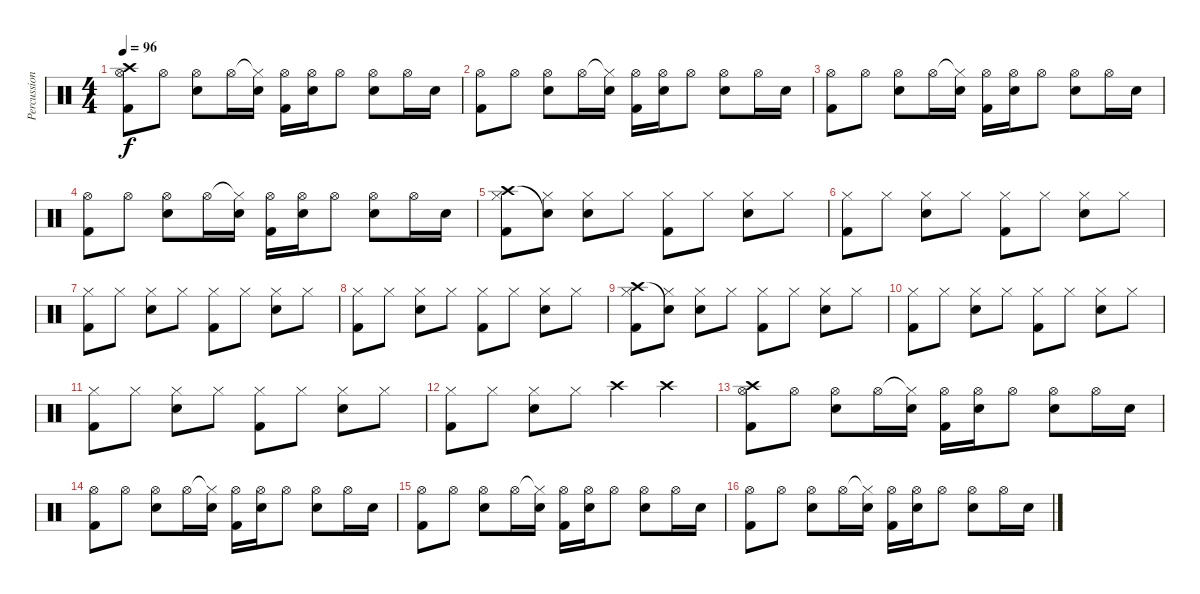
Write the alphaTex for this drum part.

\track ("Percussion" "Percussion") {instrument percussion}
\staff {score}
\articulation defaults
\ts (4 4)
\tempo 96
\clef neutral
\ks c
("Crash high (hit)" "Hi-Hat (open)" "Kick (hit) 2").8{dy f} "Hi-Hat (open)".8 ("Hi-Hat (open)" "Snare (hit) 2").8 "Hi-Hat (open)".16 ("Hi-Hat (closed)"{t} "Snare (hit) 2").16 ("Hi-Hat (open)" "Kick (hit) 2").16 ("Hi-Hat (open)" "Snare (hit) 2").16 "Hi-Hat (open)".8 ("Hi-Hat (open)" "Snare (hit) 2").8 "Hi-Hat (open)".16 "Snare (hit) 2".16 |
("Hi-Hat (open)" "Kick (hit) 2").8 "Hi-Hat (open)".8 ("Hi-Hat (open)" "Snare (hit) 2").8 "Hi-Hat (open)".16 ("Hi-Hat (closed)"{t} "Snare (hit) 2").16 ("Hi-Hat (open)" "Kick (hit) 2").16 ("Hi-Hat (open)" "Snare (hit) 2").16 "Hi-Hat (open)".8 ("Hi-Hat (open)" "Snare (hit) 2").8 "Hi-Hat (open)".16 "Snare (hit) 2".16 |
("Hi-Hat (open)" "Kick (hit) 2").8 "Hi-Hat (open)".8 ("Hi-Hat (open)" "Snare (hit) 2").8 "Hi-Hat (open)".16 ("Hi-Hat (closed)"{t} "Snare (hit) 2").16 ("Hi-Hat (open)" "Kick (hit) 2").16 ("Hi-Hat (open)" "Snare (hit) 2").16 "Hi-Hat (open)".8 ("Hi-Hat (open)" "Snare (hit) 2").8 "Hi-Hat (open)".16 "Snare (hit) 2".16 |
("Hi-Hat (open)" "Kick (hit) 2").8 "Hi-Hat (open)".8 ("Hi-Hat (open)" "Snare (hit) 2").8 "Hi-Hat (open)".16 ("Hi-Hat (closed)"{t} "Snare (hit) 2").16 ("Hi-Hat (open)" "Kick (hit) 2").16 ("Hi-Hat (open)" "Snare (hit) 2").16 "Hi-Hat (open)".8 ("Hi-Hat (open)" "Snare (hit) 2").8 "Hi-Hat (open)".16 "Snare (hit) 2".16 |
("Crash high (hit)" "Hi-Hat (closed)" "Kick (hit) 2").8 ("Snare (hit)"{t} "Hi-Hat (closed)").8 ("Hi-Hat (closed)" "Snare (hit) 2").8 "Hi-Hat (closed)".8 ("Hi-Hat (closed)" "Kick (hit) 2").8 "Hi-Hat (closed)".8 ("Hi-Hat (closed)" "Snare (hit) 2").8 "Hi-Hat (closed)".8 |
("Hi-Hat (closed)" "Kick (hit) 2").8 "Hi-Hat (closed)".8 ("Hi-Hat (closed)" "Snare (hit) 2").8 "Hi-Hat (closed)".8 ("Hi-Hat (closed)" "Kick (hit) 2").8 "Hi-Hat (closed)".8 ("Hi-Hat (closed)" "Snare (hit) 2").8 "Hi-Hat (closed)".8 |
("Hi-Hat (closed)" "Kick (hit) 2").8 "Hi-Hat (closed)".8 ("Hi-Hat (closed)" "Snare (hit) 2").8 "Hi-Hat (closed)".8 ("Hi-Hat (closed)" "Kick (hit) 2").8 "Hi-Hat (closed)".8 ("Hi-Hat (closed)" "Snare (hit) 2").8 "Hi-Hat (closed)".8 |
("Hi-Hat (closed)" "Kick (hit) 2").8 "Hi-Hat (closed)".8 ("Hi-Hat (closed)" "Snare (hit) 2").8 "Hi-Hat (closed)".8 ("Hi-Hat (closed)" "Kick (hit) 2").8 "Hi-Hat (closed)".8 ("Hi-Hat (closed)" "Snare (hit) 2").8 "Hi-Hat (closed)".8 |
("Crash high (hit)" "Hi-Hat (closed)" "Kick (hit) 2").8 ("Snare (hit)"{t} "Hi-Hat (closed)").8 ("Hi-Hat (closed)" "Snare (hit) 2").8 "Hi-Hat (closed)".8 ("Hi-Hat (closed)" "Kick (hit) 2").8 "Hi-Hat (closed)".8 ("Hi-Hat (closed)" "Snare (hit) 2").8 "Hi-Hat (closed)".8 |
("Hi-Hat (closed)" "Kick (hit) 2").8 "Hi-Hat (closed)".8 ("Hi-Hat (closed)" "Snare (hit) 2").8 "Hi-Hat (closed)".8 ("Hi-Hat (closed)" "Kick (hit) 2").8 "Hi-Hat (closed)".8 ("Hi-Hat (closed)" "Snare (hit) 2").8 "Hi-Hat (closed)".8 |
("Hi-Hat (closed)" "Kick (hit) 2").8 "Hi-Hat (closed)".8 ("Hi-Hat (closed)" "Snare (hit) 2").8 "Hi-Hat (closed)".8 ("Hi-Hat (closed)" "Kick (hit) 2").8 "Hi-Hat (closed)".8 ("Hi-Hat (closed)" "Snare (hit) 2").8 "Hi-Hat (closed)".8 |
("Hi-Hat (closed)" "Kick (hit) 2").8 "Hi-Hat (closed)".8 ("Hi-Hat (closed)" "Snare (hit) 2").8 "Hi-Hat (closed)".8 "Crash high (hit)".4 "Crash high (hit)".4 |
("Crash high (hit)" "Hi-Hat (open)" "Kick (hit) 2").8 "Hi-Hat (open)".8 ("Hi-Hat (open)" "Snare (hit) 2").8 "Hi-Hat (open)".16 ("Hi-Hat (closed)"{t} "Snare (hit) 2").16 ("Hi-Hat (open)" "Kick (hit) 2").16 ("Hi-Hat (open)" "Snare (hit) 2").16 "Hi-Hat (open)".8 ("Hi-Hat (open)" "Snare (hit) 2").8 "Hi-Hat (open)".16 "Snare (hit) 2".16 |
("Hi-Hat (open)" "Kick (hit) 2").8 "Hi-Hat (open)".8 ("Hi-Hat (open)" "Snare (hit) 2").8 "Hi-Hat (open)".16 ("Hi-Hat (closed)"{t} "Snare (hit) 2").16 ("Hi-Hat (open)" "Kick (hit) 2").16 ("Hi-Hat (open)" "Snare (hit) 2").16 "Hi-Hat (open)".8 ("Hi-Hat (open)" "Snare (hit) 2").8 "Hi-Hat (open)".16 "Snare (hit) 2".16 |
("Hi-Hat (open)" "Kick (hit) 2").8 "Hi-Hat (open)".8 ("Hi-Hat (open)" "Snare (hit) 2").8 "Hi-Hat (open)".16 ("Hi-Hat (closed)"{t} "Snare (hit) 2").16 ("Hi-Hat (open)" "Kick (hit) 2").16 ("Hi-Hat (open)" "Snare (hit) 2").16 "Hi-Hat (open)".8 ("Hi-Hat (open)" "Snare (hit) 2").8 "Hi-Hat (open)".16 "Snare (hit) 2".16 |
("Hi-Hat (open)" "Kick (hit) 2").8 "Hi-Hat (open)".8 ("Hi-Hat (open)" "Snare (hit) 2").8 "Hi-Hat (open)".16 ("Hi-Hat (closed)"{t} "Snare (hit) 2").16 ("Hi-Hat (open)" "Kick (hit) 2").16 ("Hi-Hat (open)" "Snare (hit) 2").16 "Hi-Hat (open)".8 ("Hi-Hat (open)" "Snare (hit) 2").8 "Hi-Hat (open)".16 "Snare (hit) 2".16
